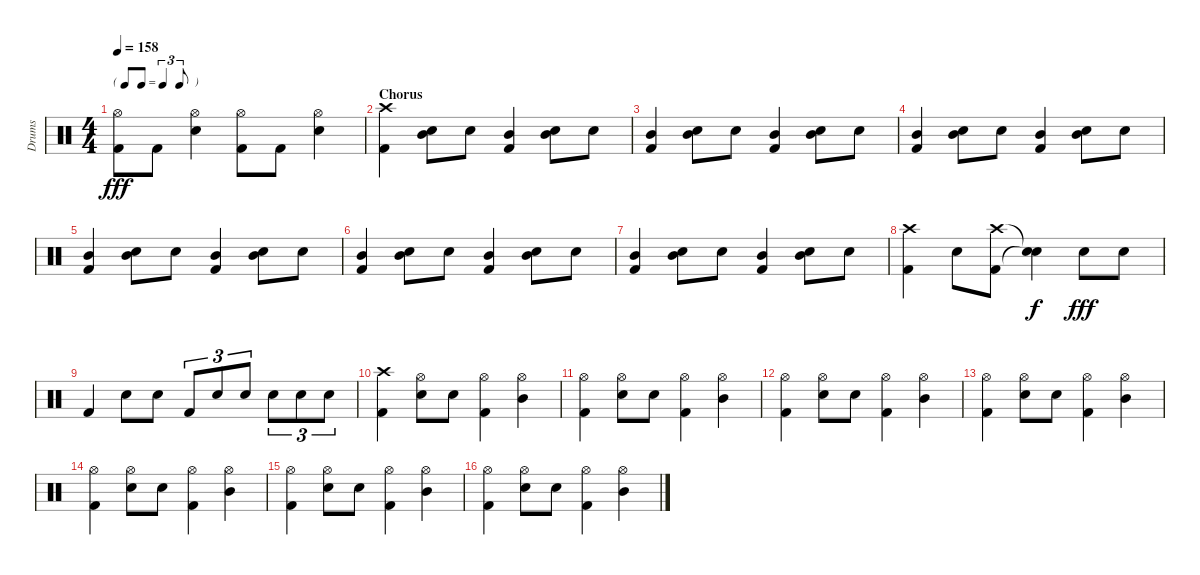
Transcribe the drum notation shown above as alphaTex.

\track ("Drums" "Drums") {instrument percussion}
\staff {score}
\articulation defaults
\ts (4 4)
\tf triplet8th
\tempo 158
\clef neutral
\ks c
("Hi-Hat (open)" "Kick (hit) 2").8{dy fff} "Kick (hit) 2".8 ("Hi-Hat (open)" "Snare (hit) 2").4 ("Hi-Hat (open)" "Kick (hit) 2").8 "Kick (hit) 2".8 ("Hi-Hat (open)" "Snare (hit) 2").4 |
\section ("" "Chorus")
("Crash high (hit)" "Kick (hit) 2").4 ("Mid Tom (hit)" "Snare (hit) 2").8 "Snare (hit) 2".8 ("Mid Tom (hit)" "Kick (hit) 2").4 ("Mid Tom (hit)" "Snare (hit) 2").8 "Snare (hit) 2".8 |
("Mid Tom (hit)" "Kick (hit) 2").4 ("Mid Tom (hit)" "Snare (hit) 2").8 "Snare (hit) 2".8 ("Mid Tom (hit)" "Kick (hit) 2").4 ("Mid Tom (hit)" "Snare (hit) 2").8 "Snare (hit) 2".8 |
("Mid Tom (hit)" "Kick (hit) 2").4 ("Mid Tom (hit)" "Snare (hit) 2").8 "Snare (hit) 2".8 ("Mid Tom (hit)" "Kick (hit) 2").4 ("Mid Tom (hit)" "Snare (hit) 2").8 "Snare (hit) 2".8 |
("Mid Tom (hit)" "Kick (hit) 2").4 ("Mid Tom (hit)" "Snare (hit) 2").8 "Snare (hit) 2".8 ("Mid Tom (hit)" "Kick (hit) 2").4 ("Mid Tom (hit)" "Snare (hit) 2").8 "Snare (hit) 2".8 |
("Mid Tom (hit)" "Kick (hit) 2").4 ("Mid Tom (hit)" "Snare (hit) 2").8 "Snare (hit) 2".8 ("Mid Tom (hit)" "Kick (hit) 2").4 ("Mid Tom (hit)" "Snare (hit) 2").8 "Snare (hit) 2".8 |
("Mid Tom (hit)" "Kick (hit) 2").4 ("Mid Tom (hit)" "Snare (hit) 2").8 "Snare (hit) 2".8 ("Mid Tom (hit)" "Kick (hit) 2").4 ("Mid Tom (hit)" "Snare (hit) 2").8 "Snare (hit) 2".8 |
("Crash high (hit)" "Kick (hit) 2").4 "Snare (hit) 2".8 ("Crash high (hit)" "Kick (hit) 2").8 ("Snare (hit)"{t} "Snare (hit)"{t}).4{dy f} "Snare (hit) 2".8{dy fff} "Snare (hit) 2".8 |
"Kick (hit) 2".4 "Snare (hit) 2".8 "Snare (hit) 2".8 "Kick (hit) 2".8{tu (3 2)} "Snare (hit) 2".8{tu (3 2)} "Snare (hit) 2".8{tu (3 2)} "Snare (hit) 2".8{tu (3 2)} "Snare (hit) 2".8{tu (3 2)} "Snare (hit) 2".8{tu (3 2)} |
("Crash high (hit)" "Kick (hit) 2").4 ("Hi-Hat (open)" "Snare (hit) 2").8 "Snare (hit) 2".8 ("Hi-Hat (open)" "Kick (hit) 2").4 ("Hi-Hat (open)" "Mid Tom (hit)").4 |
("Hi-Hat (open)" "Kick (hit) 2").4 ("Hi-Hat (open)" "Snare (hit) 2").8 "Snare (hit) 2".8 ("Hi-Hat (open)" "Kick (hit) 2").4 ("Hi-Hat (open)" "Mid Tom (hit)").4 |
("Hi-Hat (open)" "Kick (hit) 2").4 ("Hi-Hat (open)" "Snare (hit) 2").8 "Snare (hit) 2".8 ("Hi-Hat (open)" "Kick (hit) 2").4 ("Hi-Hat (open)" "Mid Tom (hit)").4 |
("Hi-Hat (open)" "Kick (hit) 2").4 ("Hi-Hat (open)" "Snare (hit) 2").8 "Snare (hit) 2".8 ("Hi-Hat (open)" "Kick (hit) 2").4 ("Hi-Hat (open)" "Mid Tom (hit)").4 |
("Hi-Hat (open)" "Kick (hit) 2").4 ("Hi-Hat (open)" "Snare (hit) 2").8 "Snare (hit) 2".8 ("Hi-Hat (open)" "Kick (hit) 2").4 ("Hi-Hat (open)" "Mid Tom (hit)").4 |
("Hi-Hat (open)" "Kick (hit) 2").4 ("Hi-Hat (open)" "Snare (hit) 2").8 "Snare (hit) 2".8 ("Hi-Hat (open)" "Kick (hit) 2").4 ("Hi-Hat (open)" "Mid Tom (hit)").4 |
("Hi-Hat (open)" "Kick (hit) 2").4 ("Hi-Hat (open)" "Snare (hit) 2").8 "Snare (hit) 2".8 ("Hi-Hat (open)" "Kick (hit) 2").4 ("Hi-Hat (open)" "Mid Tom (hit)").4
